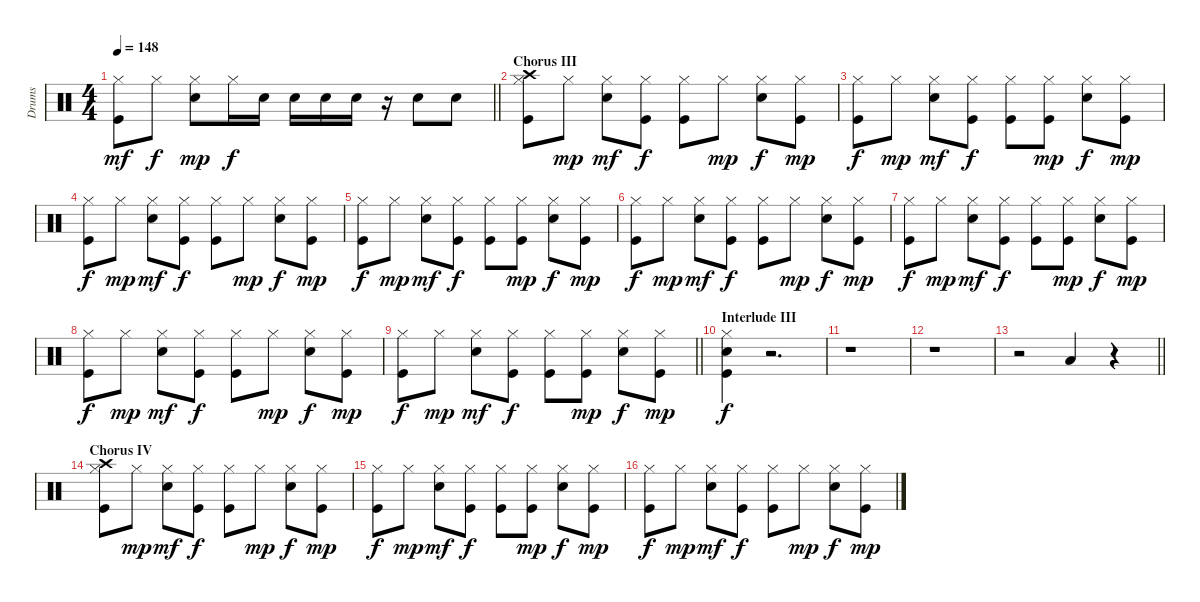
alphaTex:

\track ("Drums   " "Drums   ") {instrument percussion}
\staff {score}
\articulation defaults
\ts (4 4)
\tempo 148
\clef neutral
\barLineRight lightlight
\ks c
("Hi-Hat (closed)" "Kick (hit)").8{dy mf} "Hi-Hat (closed)".8{dy f} ("Hi-Hat (closed)" "Snare (hit) 2").8{dy mp} "Hi-Hat (closed)".16{dy f} "Snare (hit) 2".16 "Snare (hit) 2".16 "Snare (hit) 2".16 "Snare (hit) 2".16 r.16 "Snare (hit) 2".8 "Snare (hit) 2".8 |
\section ("" "Chorus III")
("Hi-Hat (closed)" "Crash high (hit)" "Kick (hit)").8 "Hi-Hat (closed)".8{dy mp} ("Hi-Hat (closed)" "Snare (hit) 2").8{dy mf} ("Hi-Hat (closed)" "Kick (hit)").8{dy f} ("Hi-Hat (closed)" "Kick (hit)").8 "Hi-Hat (closed)".8{dy mp} ("Hi-Hat (closed)" "Snare (hit) 2").8{dy f} ("Hi-Hat (closed)" "Kick (hit)").8{dy mp} |
("Hi-Hat (closed)" "Kick (hit)").8{dy f} "Hi-Hat (closed)".8{dy mp} ("Hi-Hat (closed)" "Snare (hit) 2").8{dy mf} ("Hi-Hat (closed)" "Kick (hit)").8{dy f} ("Hi-Hat (closed)" "Kick (hit)").8 ("Hi-Hat (closed)" "Kick (hit)").8{dy mp} ("Hi-Hat (closed)" "Snare (hit) 2").8{dy f} ("Hi-Hat (closed)" "Kick (hit)").8{dy mp} |
("Hi-Hat (closed)" "Kick (hit)").8{dy f} "Hi-Hat (closed)".8{dy mp} ("Hi-Hat (closed)" "Snare (hit) 2").8{dy mf} ("Hi-Hat (closed)" "Kick (hit)").8{dy f} ("Hi-Hat (closed)" "Kick (hit)").8 "Hi-Hat (closed)".8{dy mp} ("Hi-Hat (closed)" "Snare (hit) 2").8{dy f} ("Hi-Hat (closed)" "Kick (hit)").8{dy mp} |
("Hi-Hat (closed)" "Kick (hit)").8{dy f} "Hi-Hat (closed)".8{dy mp} ("Hi-Hat (closed)" "Snare (hit) 2").8{dy mf} ("Hi-Hat (closed)" "Kick (hit)").8{dy f} ("Hi-Hat (closed)" "Kick (hit)").8 ("Hi-Hat (closed)" "Kick (hit)").8{dy mp} ("Hi-Hat (closed)" "Snare (hit) 2").8{dy f} ("Hi-Hat (closed)" "Kick (hit)").8{dy mp} |
("Hi-Hat (closed)" "Kick (hit)").8{dy f} "Hi-Hat (closed)".8{dy mp} ("Hi-Hat (closed)" "Snare (hit) 2").8{dy mf} ("Hi-Hat (closed)" "Kick (hit)").8{dy f} ("Hi-Hat (closed)" "Kick (hit)").8 "Hi-Hat (closed)".8{dy mp} ("Hi-Hat (closed)" "Snare (hit) 2").8{dy f} ("Hi-Hat (closed)" "Kick (hit)").8{dy mp} |
("Hi-Hat (closed)" "Kick (hit)").8{dy f} "Hi-Hat (closed)".8{dy mp} ("Hi-Hat (closed)" "Snare (hit) 2").8{dy mf} ("Hi-Hat (closed)" "Kick (hit)").8{dy f} ("Hi-Hat (closed)" "Kick (hit)").8 ("Hi-Hat (closed)" "Kick (hit)").8{dy mp} ("Hi-Hat (closed)" "Snare (hit) 2").8{dy f} ("Hi-Hat (closed)" "Kick (hit)").8{dy mp} |
("Hi-Hat (closed)" "Kick (hit)").8{dy f} "Hi-Hat (closed)".8{dy mp} ("Hi-Hat (closed)" "Snare (hit) 2").8{dy mf} ("Hi-Hat (closed)" "Kick (hit)").8{dy f} ("Hi-Hat (closed)" "Kick (hit)").8 "Hi-Hat (closed)".8{dy mp} ("Hi-Hat (closed)" "Snare (hit) 2").8{dy f} ("Hi-Hat (closed)" "Kick (hit)").8{dy mp} |
\barLineRight lightlight
("Hi-Hat (closed)" "Kick (hit)").8{dy f} "Hi-Hat (closed)".8{dy mp} ("Hi-Hat (closed)" "Snare (hit) 2").8{dy mf} ("Hi-Hat (closed)" "Kick (hit)").8{dy f} ("Hi-Hat (closed)" "Kick (hit)").8 ("Hi-Hat (closed)" "Kick (hit)").8{dy mp} ("Hi-Hat (closed)" "Snare (hit) 2").8{dy f} ("Hi-Hat (closed)" "Kick (hit)").8{dy mp} |
\section ("" "Interlude III")
("Hi-Hat (closed)" "Snare (hit) 2" "Kick (hit)").4{dy f} r.2{d} |
r.1 |
r.1 |
\barLineRight lightlight
r.2 "Low Tom (hit)".4 r.4 |
\section ("" "Chorus IV")
("Hi-Hat (closed)" "Crash high (hit)" "Kick (hit)").8 "Hi-Hat (closed)".8{dy mp} ("Hi-Hat (closed)" "Snare (hit) 2").8{dy mf} ("Hi-Hat (closed)" "Kick (hit)").8{dy f} ("Hi-Hat (closed)" "Kick (hit)").8 "Hi-Hat (closed)".8{dy mp} ("Hi-Hat (closed)" "Snare (hit) 2").8{dy f} ("Hi-Hat (closed)" "Kick (hit)").8{dy mp} |
("Hi-Hat (closed)" "Kick (hit)").8{dy f} "Hi-Hat (closed)".8{dy mp} ("Hi-Hat (closed)" "Snare (hit) 2").8{dy mf} ("Hi-Hat (closed)" "Kick (hit)").8{dy f} ("Hi-Hat (closed)" "Kick (hit)").8 ("Hi-Hat (closed)" "Kick (hit)").8{dy mp} ("Hi-Hat (closed)" "Snare (hit) 2").8{dy f} ("Hi-Hat (closed)" "Kick (hit)").8{dy mp} |
("Hi-Hat (closed)" "Kick (hit)").8{dy f} "Hi-Hat (closed)".8{dy mp} ("Hi-Hat (closed)" "Snare (hit) 2").8{dy mf} ("Hi-Hat (closed)" "Kick (hit)").8{dy f} ("Hi-Hat (closed)" "Kick (hit)").8 "Hi-Hat (closed)".8{dy mp} ("Hi-Hat (closed)" "Snare (hit) 2").8{dy f} ("Hi-Hat (closed)" "Kick (hit)").8{dy mp}
